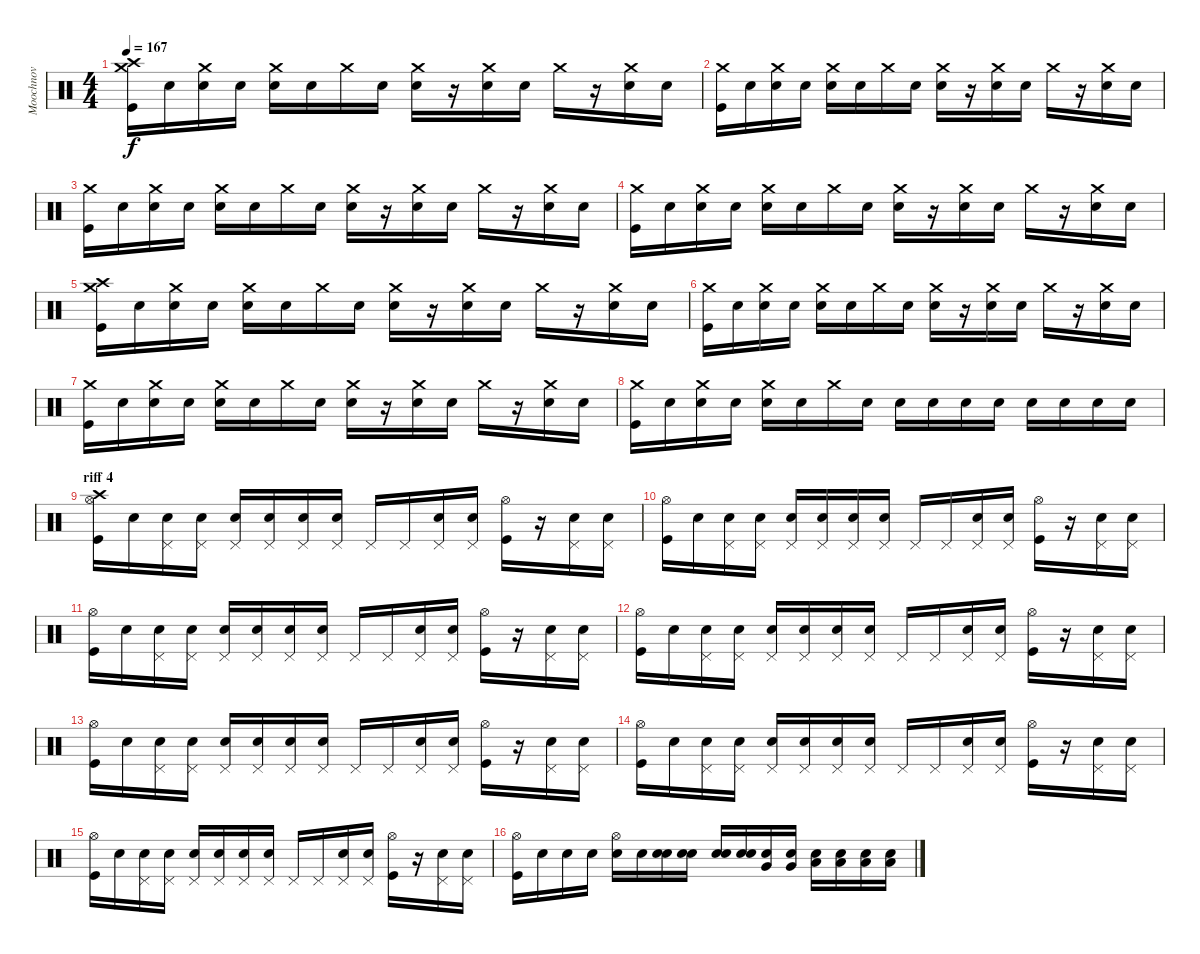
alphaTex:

\track ("Moochnov" "Moochnov") {instrument percussion}
\staff {score}
\articulation defaults
\ts (4 4)
\tempo 167
\clef neutral
\ks c
("Kick (hit)" "Crash medium (hit)" "Crash high (hit)").16{dy f} "Snare (hit)"{x}.16 ("Snare (hit)"{x} "Crash medium (hit)").16 "Snare (hit)"{x}.16 ("Snare (hit)"{x} "Crash medium (hit)").16 "Snare (hit)"{x}.16 "Crash medium (hit)".16 "Snare (hit)"{x}.16 ("Snare (hit) 2" "Crash medium (hit)").16 r.16 ("Snare (hit)"{x} "Crash medium (hit)").16 "Snare (hit)"{x}.16 "Crash medium (hit)".16 r.16 ("Snare (hit)"{x} "Crash medium (hit)").16 "Snare (hit)"{x}.16 |
("Kick (hit)" "Crash medium (hit)").16 "Snare (hit)"{x}.16 ("Snare (hit)"{x} "Crash medium (hit)").16 "Snare (hit)"{x}.16 ("Snare (hit)"{x} "Crash medium (hit)").16 "Snare (hit)"{x}.16 "Crash medium (hit)".16 "Snare (hit)"{x}.16 ("Snare (hit) 2" "Crash medium (hit)").16 r.16 ("Snare (hit)"{x} "Crash medium (hit)").16 "Snare (hit)"{x}.16 "Crash medium (hit)".16 r.16 ("Snare (hit)"{x} "Crash medium (hit)").16 "Snare (hit)"{x}.16 |
("Kick (hit)" "Crash medium (hit)").16 "Snare (hit)"{x}.16 ("Snare (hit)"{x} "Crash medium (hit)").16 "Snare (hit)"{x}.16 ("Snare (hit)"{x} "Crash medium (hit)").16 "Snare (hit)"{x}.16 "Crash medium (hit)".16 "Snare (hit)"{x}.16 ("Snare (hit) 2" "Crash medium (hit)").16 r.16 ("Snare (hit)"{x} "Crash medium (hit)").16 "Snare (hit)"{x}.16 "Crash medium (hit)".16 r.16 ("Snare (hit)"{x} "Crash medium (hit)").16 "Snare (hit)"{x}.16 |
("Kick (hit)" "Crash medium (hit)").16 "Snare (hit)"{x}.16 ("Snare (hit)"{x} "Crash medium (hit)").16 "Snare (hit)"{x}.16 ("Snare (hit)"{x} "Crash medium (hit)").16 "Snare (hit)"{x}.16 "Crash medium (hit)".16 "Snare (hit)"{x}.16 ("Snare (hit) 2" "Crash medium (hit)").16 r.16 ("Snare (hit)"{x} "Crash medium (hit)").16 "Snare (hit)"{x}.16 "Crash medium (hit)".16 r.16 ("Snare (hit)"{x} "Crash medium (hit)").16 "Snare (hit)"{x}.16 |
("Kick (hit)" "Crash medium (hit)" "Crash high (hit)").16 "Snare (hit)"{x}.16 ("Snare (hit)"{x} "Crash medium (hit)").16 "Snare (hit)"{x}.16 ("Snare (hit)"{x} "Crash medium (hit)").16 "Snare (hit)"{x}.16 "Crash medium (hit)".16 "Snare (hit)"{x}.16 ("Snare (hit) 2" "Crash medium (hit)").16 r.16 ("Snare (hit)"{x} "Crash medium (hit)").16 "Snare (hit)"{x}.16 "Crash medium (hit)".16 r.16 ("Snare (hit)"{x} "Crash medium (hit)").16 "Snare (hit)"{x}.16 |
("Kick (hit)" "Crash medium (hit)").16 "Snare (hit)"{x}.16 ("Snare (hit)"{x} "Crash medium (hit)").16 "Snare (hit)"{x}.16 ("Snare (hit)"{x} "Crash medium (hit)").16 "Snare (hit)"{x}.16 "Crash medium (hit)".16 "Snare (hit)"{x}.16 ("Snare (hit) 2" "Crash medium (hit)").16 r.16 ("Snare (hit)"{x} "Crash medium (hit)").16 "Snare (hit)"{x}.16 "Crash medium (hit)".16 r.16 ("Snare (hit)"{x} "Crash medium (hit)").16 "Snare (hit)"{x}.16 |
("Kick (hit)" "Crash medium (hit)").16 "Snare (hit)"{x}.16 ("Snare (hit)"{x} "Crash medium (hit)").16 "Snare (hit)"{x}.16 ("Snare (hit)"{x} "Crash medium (hit)").16 "Snare (hit)"{x}.16 "Crash medium (hit)".16 "Snare (hit)"{x}.16 ("Snare (hit) 2" "Crash medium (hit)").16 r.16 ("Snare (hit)"{x} "Crash medium (hit)").16 "Snare (hit)"{x}.16 "Crash medium (hit)".16 r.16 ("Snare (hit)"{x} "Crash medium (hit)").16 "Snare (hit)"{x}.16 |
("Kick (hit)" "Crash medium (hit)").16 "Snare (hit)"{x}.16 ("Snare (hit)"{x} "Crash medium (hit)").16 "Snare (hit)"{x}.16 ("Snare (hit)"{x} "Crash medium (hit)").16 "Snare (hit)"{x}.16 "Crash medium (hit)".16 "Snare (hit)"{x}.16 "Snare (hit) 2".16 "Snare (hit) 2".16 "Snare (hit) 2".16 "Snare (hit) 2".16 "Snare (hit) 2".16 "Snare (hit) 2".16 "Snare (hit) 2".16 "Snare (hit) 2".16 |
\section ("" "riff 4")
("Kick (hit)" "Hi-Hat (open)" "Crash high (hit)").16 "Snare (hit)"{x}.16 ("Snare (hit)"{x} "Pedal Hi-Hat (hit)").16 ("Snare (hit)"{x} "Pedal Hi-Hat (hit)").16 ("Snare (hit)"{x} "Pedal Hi-Hat (hit)").16 ("Snare (hit)"{x} "Pedal Hi-Hat (hit)").16 ("Snare (hit) 2" "Pedal Hi-Hat (hit)").16 ("Snare (hit)"{x} "Pedal Hi-Hat (hit)").16 "Pedal Hi-Hat (hit)".16 "Pedal Hi-Hat (hit)".16 ("Snare (hit)"{x} "Pedal Hi-Hat (hit)").16 ("Snare (hit)"{x} "Pedal Hi-Hat (hit)").16 ("Kick (hit)" "Hi-Hat (open)").16 r.16 ("Snare (hit)"{x} "Pedal Hi-Hat (hit)").16 ("Snare (hit)"{x} "Pedal Hi-Hat (hit)").16 |
("Kick (hit)" "Hi-Hat (open)").16 "Snare (hit)"{x}.16 ("Snare (hit)"{x} "Pedal Hi-Hat (hit)").16 ("Snare (hit)"{x} "Pedal Hi-Hat (hit)").16 ("Snare (hit)"{x} "Pedal Hi-Hat (hit)").16 ("Snare (hit)"{x} "Pedal Hi-Hat (hit)").16 ("Snare (hit) 2" "Pedal Hi-Hat (hit)").16 ("Snare (hit)"{x} "Pedal Hi-Hat (hit)").16 "Pedal Hi-Hat (hit)".16 "Pedal Hi-Hat (hit)".16 ("Snare (hit)"{x} "Pedal Hi-Hat (hit)").16 ("Snare (hit)"{x} "Pedal Hi-Hat (hit)").16 ("Kick (hit)" "Hi-Hat (open)").16 r.16 ("Snare (hit)"{x} "Pedal Hi-Hat (hit)").16 ("Snare (hit)"{x} "Pedal Hi-Hat (hit)").16 |
("Kick (hit)" "Hi-Hat (open)").16 "Snare (hit)"{x}.16 ("Snare (hit)"{x} "Pedal Hi-Hat (hit)").16 ("Snare (hit)"{x} "Pedal Hi-Hat (hit)").16 ("Snare (hit)"{x} "Pedal Hi-Hat (hit)").16 ("Snare (hit)"{x} "Pedal Hi-Hat (hit)").16 ("Snare (hit) 2" "Pedal Hi-Hat (hit)").16 ("Snare (hit)"{x} "Pedal Hi-Hat (hit)").16 "Pedal Hi-Hat (hit)".16 "Pedal Hi-Hat (hit)".16 ("Snare (hit)"{x} "Pedal Hi-Hat (hit)").16 ("Snare (hit)"{x} "Pedal Hi-Hat (hit)").16 ("Kick (hit)" "Hi-Hat (open)").16 r.16 ("Snare (hit)"{x} "Pedal Hi-Hat (hit)").16 ("Snare (hit)"{x} "Pedal Hi-Hat (hit)").16 |
("Kick (hit)" "Hi-Hat (open)").16 "Snare (hit)"{x}.16 ("Snare (hit)"{x} "Pedal Hi-Hat (hit)").16 ("Snare (hit)"{x} "Pedal Hi-Hat (hit)").16 ("Snare (hit)"{x} "Pedal Hi-Hat (hit)").16 ("Snare (hit)"{x} "Pedal Hi-Hat (hit)").16 ("Snare (hit) 2" "Pedal Hi-Hat (hit)").16 ("Snare (hit)"{x} "Pedal Hi-Hat (hit)").16 "Pedal Hi-Hat (hit)".16 "Pedal Hi-Hat (hit)".16 ("Snare (hit)"{x} "Pedal Hi-Hat (hit)").16 ("Snare (hit)"{x} "Pedal Hi-Hat (hit)").16 ("Kick (hit)" "Hi-Hat (open)").16 r.16 ("Snare (hit)"{x} "Pedal Hi-Hat (hit)").16 ("Snare (hit)"{x} "Pedal Hi-Hat (hit)").16 |
("Kick (hit)" "Hi-Hat (open)").16 "Snare (hit)"{x}.16 ("Snare (hit)"{x} "Pedal Hi-Hat (hit)").16 ("Snare (hit)"{x} "Pedal Hi-Hat (hit)").16 ("Snare (hit)"{x} "Pedal Hi-Hat (hit)").16 ("Snare (hit)"{x} "Pedal Hi-Hat (hit)").16 ("Snare (hit) 2" "Pedal Hi-Hat (hit)").16 ("Snare (hit)"{x} "Pedal Hi-Hat (hit)").16 "Pedal Hi-Hat (hit)".16 "Pedal Hi-Hat (hit)".16 ("Snare (hit)"{x} "Pedal Hi-Hat (hit)").16 ("Snare (hit)"{x} "Pedal Hi-Hat (hit)").16 ("Kick (hit)" "Hi-Hat (open)").16 r.16 ("Snare (hit)"{x} "Pedal Hi-Hat (hit)").16 ("Snare (hit)"{x} "Pedal Hi-Hat (hit)").16 |
("Kick (hit)" "Hi-Hat (open)").16 "Snare (hit)"{x}.16 ("Snare (hit)"{x} "Pedal Hi-Hat (hit)").16 ("Snare (hit)"{x} "Pedal Hi-Hat (hit)").16 ("Snare (hit)"{x} "Pedal Hi-Hat (hit)").16 ("Snare (hit)"{x} "Pedal Hi-Hat (hit)").16 ("Snare (hit) 2" "Pedal Hi-Hat (hit)").16 ("Snare (hit)"{x} "Pedal Hi-Hat (hit)").16 "Pedal Hi-Hat (hit)".16 "Pedal Hi-Hat (hit)".16 ("Snare (hit)"{x} "Pedal Hi-Hat (hit)").16 ("Snare (hit)"{x} "Pedal Hi-Hat (hit)").16 ("Kick (hit)" "Hi-Hat (open)").16 r.16 ("Snare (hit)"{x} "Pedal Hi-Hat (hit)").16 ("Snare (hit)"{x} "Pedal Hi-Hat (hit)").16 |
("Kick (hit)" "Hi-Hat (open)").16 "Snare (hit)"{x}.16 ("Snare (hit)"{x} "Pedal Hi-Hat (hit)").16 ("Snare (hit)"{x} "Pedal Hi-Hat (hit)").16 ("Snare (hit)"{x} "Pedal Hi-Hat (hit)").16 ("Snare (hit)"{x} "Pedal Hi-Hat (hit)").16 ("Snare (hit) 2" "Pedal Hi-Hat (hit)").16 ("Snare (hit)"{x} "Pedal Hi-Hat (hit)").16 "Pedal Hi-Hat (hit)".16 "Pedal Hi-Hat (hit)".16 ("Snare (hit)"{x} "Pedal Hi-Hat (hit)").16 ("Snare (hit)"{x} "Pedal Hi-Hat (hit)").16 ("Kick (hit)" "Hi-Hat (open)").16 r.16 ("Snare (hit)"{x} "Pedal Hi-Hat (hit)").16 ("Snare (hit)"{x} "Pedal Hi-Hat (hit)").16 |
("Kick (hit)" "Hi-Hat (open)").16 "Snare (hit)"{x}.16 "Snare (hit)"{x}.16 "Snare (hit)"{x}.16 ("Snare (hit)"{x} "Hi-Hat (open)").16 "Snare (hit)"{x}.16 ("Snare (hit)"{x} "Electric Snare (hit)").16 ("Snare (hit)"{x} "Electric Snare (hit)").16 ("Snare (hit)"{x} "Electric Snare (hit)").16 ("Snare (hit)"{x} "Electric Snare (hit)").16 ("Snare (hit)"{x} "Very Low Tom (hit)").16 ("Snare (hit)"{x} "Very Low Tom (hit)").16 ("Snare (hit)"{x} "Low Floor Tom (hit)").16 ("Snare (hit)"{x} "Low Floor Tom (hit)").16 ("Snare (hit)"{x} "Low Floor Tom (hit)").16 ("Snare (hit)"{x} "Low Floor Tom (hit)").16
